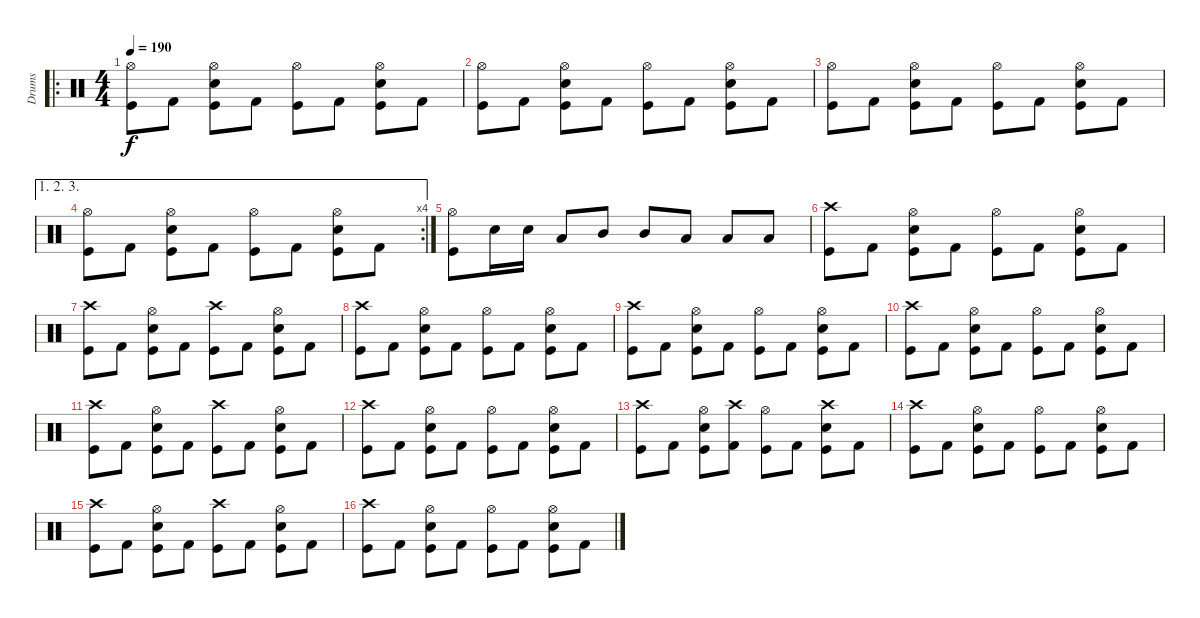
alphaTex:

\track ("Drums" "Drums") {instrument percussion}
\staff {score}
\articulation defaults
\ro
\ts (4 4)
\tempo 190
\clef neutral
\ks c
("Hi-Hat (open)" "Kick (hit)").8{dy f} "Kick (hit) 2".8 ("Hi-Hat (open)" "Snare (hit) 2" "Kick (hit)").8 "Kick (hit) 2".8 ("Hi-Hat (open)" "Kick (hit)").8 "Kick (hit) 2".8 ("Hi-Hat (open)" "Snare (hit) 2" "Kick (hit)").8 "Kick (hit) 2".8 |
("Hi-Hat (open)" "Kick (hit)").8 "Kick (hit) 2".8 ("Hi-Hat (open)" "Snare (hit) 2" "Kick (hit)").8 "Kick (hit) 2".8 ("Hi-Hat (open)" "Kick (hit)").8 "Kick (hit) 2".8 ("Hi-Hat (open)" "Snare (hit) 2" "Kick (hit)").8 "Kick (hit) 2".8 |
("Hi-Hat (open)" "Kick (hit)").8 "Kick (hit) 2".8 ("Hi-Hat (open)" "Snare (hit) 2" "Kick (hit)").8 "Kick (hit) 2".8 ("Hi-Hat (open)" "Kick (hit)").8 "Kick (hit) 2".8 ("Hi-Hat (open)" "Snare (hit) 2" "Kick (hit)").8 "Kick (hit) 2".8 |
\ae (1 2 3)
\rc 4
("Hi-Hat (open)" "Kick (hit)").8 "Kick (hit) 2".8 ("Hi-Hat (open)" "Snare (hit) 2" "Kick (hit)").8 "Kick (hit) 2".8 ("Hi-Hat (open)" "Kick (hit)").8 "Kick (hit) 2".8 ("Hi-Hat (open)" "Snare (hit) 2" "Kick (hit)").8 "Kick (hit) 2".8 |
("Hi-Hat (open)" "Kick (hit)").8 "Snare (hit) 2".16 "Snare (hit) 2".16 "Low Tom (hit)".8 "Mid Tom (hit)".8 "Mid Tom (hit)".8 "Low Floor Tom (hit)".8 "Low Floor Tom (hit)".8 "Low Floor Tom (hit)".8 |
("Crash high (hit)" "Kick (hit)").8 "Kick (hit) 2".8 ("Hi-Hat (open)" "Snare (hit) 2" "Kick (hit)").8 "Kick (hit) 2".8 ("Hi-Hat (open)" "Kick (hit)").8 "Kick (hit) 2".8 ("Hi-Hat (open)" "Snare (hit) 2" "Kick (hit)").8 "Kick (hit) 2".8 |
("Crash high (hit)" "Kick (hit)").8 "Kick (hit) 2".8 ("Hi-Hat (open)" "Snare (hit) 2" "Kick (hit)").8 "Kick (hit) 2".8 ("Crash high (hit)" "Kick (hit)").8 "Kick (hit) 2".8 ("Hi-Hat (open)" "Snare (hit) 2" "Kick (hit)").8 "Kick (hit) 2".8 |
("Crash high (hit)" "Kick (hit)").8 "Kick (hit) 2".8 ("Hi-Hat (open)" "Snare (hit) 2" "Kick (hit)").8 "Kick (hit) 2".8 ("Hi-Hat (open)" "Kick (hit)").8 "Kick (hit) 2".8 ("Hi-Hat (open)" "Snare (hit) 2" "Kick (hit)").8 "Kick (hit) 2".8 |
("Crash high (hit)" "Kick (hit)").8 "Kick (hit) 2".8 ("Hi-Hat (open)" "Snare (hit) 2" "Kick (hit)").8 "Kick (hit) 2".8 ("Hi-Hat (open)" "Kick (hit)").8 "Kick (hit) 2".8 ("Hi-Hat (open)" "Snare (hit) 2" "Kick (hit)").8 "Kick (hit) 2".8 |
("Crash high (hit)" "Kick (hit)").8 "Kick (hit) 2".8 ("Hi-Hat (open)" "Snare (hit) 2" "Kick (hit)").8 "Kick (hit) 2".8 ("Hi-Hat (open)" "Kick (hit)").8 "Kick (hit) 2".8 ("Hi-Hat (open)" "Snare (hit) 2" "Kick (hit)").8 "Kick (hit) 2".8 |
("Crash high (hit)" "Kick (hit)").8 "Kick (hit) 2".8 ("Hi-Hat (open)" "Snare (hit) 2" "Kick (hit)").8 "Kick (hit) 2".8 ("Crash high (hit)" "Kick (hit)").8 "Kick (hit) 2".8 ("Hi-Hat (open)" "Snare (hit) 2" "Kick (hit)").8 "Kick (hit) 2".8 |
("Crash high (hit)" "Kick (hit)").8 "Kick (hit) 2".8 ("Hi-Hat (open)" "Snare (hit) 2" "Kick (hit)").8 "Kick (hit) 2".8 ("Hi-Hat (open)" "Kick (hit)").8 "Kick (hit) 2".8 ("Hi-Hat (open)" "Snare (hit) 2" "Kick (hit)").8 "Kick (hit) 2".8 |
("Crash high (hit)" "Kick (hit)").8 "Kick (hit) 2".8 ("Hi-Hat (open)" "Snare (hit) 2" "Kick (hit)").8 ("Crash high (hit)" "Kick (hit) 2").8 ("Hi-Hat (open)" "Kick (hit)").8 "Kick (hit) 2".8 ("Crash high (hit)" "Snare (hit) 2" "Kick (hit)").8 "Kick (hit) 2".8 |
("Crash high (hit)" "Kick (hit)").8 "Kick (hit) 2".8 ("Hi-Hat (open)" "Snare (hit) 2" "Kick (hit)").8 "Kick (hit) 2".8 ("Hi-Hat (open)" "Kick (hit)").8 "Kick (hit) 2".8 ("Hi-Hat (open)" "Snare (hit) 2" "Kick (hit)").8 "Kick (hit) 2".8 |
("Crash high (hit)" "Kick (hit)").8 "Kick (hit) 2".8 ("Hi-Hat (open)" "Snare (hit) 2" "Kick (hit)").8 "Kick (hit) 2".8 ("Crash high (hit)" "Kick (hit)").8 "Kick (hit) 2".8 ("Hi-Hat (open)" "Snare (hit) 2" "Kick (hit)").8 "Kick (hit) 2".8 |
("Crash high (hit)" "Kick (hit)").8 "Kick (hit) 2".8 ("Hi-Hat (open)" "Snare (hit) 2" "Kick (hit)").8 "Kick (hit) 2".8 ("Hi-Hat (open)" "Kick (hit)").8 "Kick (hit) 2".8 ("Hi-Hat (open)" "Snare (hit) 2" "Kick (hit)").8 "Kick (hit) 2".8
